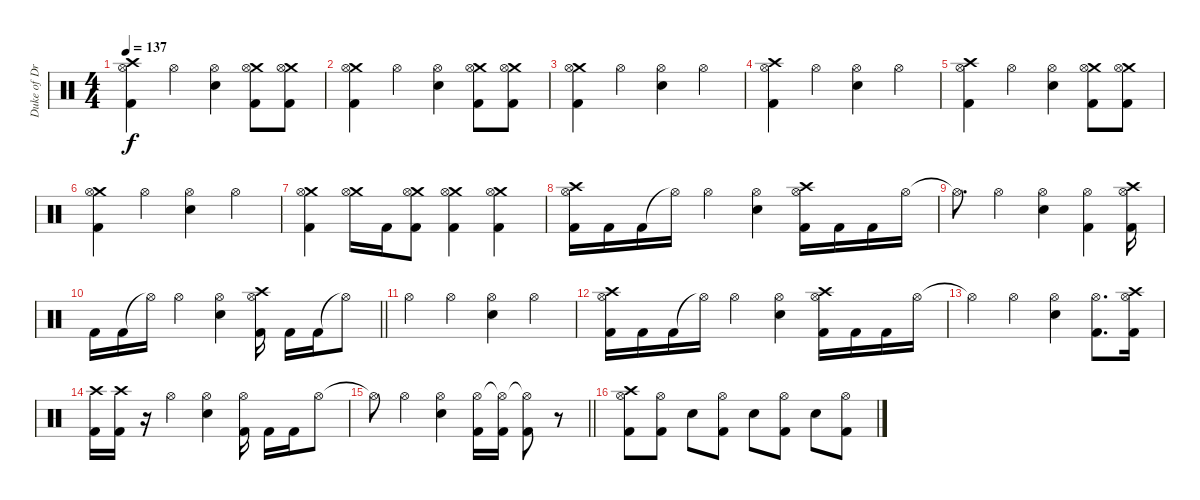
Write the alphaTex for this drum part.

\track ("Duke of Drumington" "Duke of Dr") {instrument percussion}
\staff {score}
\articulation defaults
\ts (4 4)
\tempo 137
\clef neutral
\ks c
("Crash high (hit)" "Hi-Hat (open)" "Kick (hit) 2").4{dy f} "Hi-Hat (open)".4 ("Hi-Hat (open)" "Snare (hit) 2").4 ("Crash medium (hit)" "Hi-Hat (open)" "Kick (hit) 2").8 ("Crash medium (hit)" "Hi-Hat (open)" "Kick (hit) 2").8 |
("Crash medium (hit)" "Hi-Hat (open)" "Kick (hit) 2").4 "Hi-Hat (open)".4 ("Hi-Hat (open)" "Snare (hit) 2").4 ("Crash medium (hit)" "Hi-Hat (open)" "Kick (hit) 2").8 ("Crash medium (hit)" "Hi-Hat (open)" "Kick (hit) 2").8 |
("Crash medium (hit)" "Hi-Hat (open)" "Kick (hit) 2").4 "Hi-Hat (open)".4 ("Hi-Hat (open)" "Snare (hit) 2").4 "Hi-Hat (open)".4 |
("Crash high (hit)" "Hi-Hat (open)" "Kick (hit) 2").4 "Hi-Hat (open)".4 ("Hi-Hat (open)" "Snare (hit) 2").4 "Hi-Hat (open)".4 |
("Crash high (hit)" "Hi-Hat (open)" "Kick (hit) 2").4 "Hi-Hat (open)".4 ("Hi-Hat (open)" "Snare (hit) 2").4 ("Crash medium (hit)" "Hi-Hat (open)" "Kick (hit) 2").8 ("Crash medium (hit)" "Hi-Hat (open)" "Kick (hit) 2").8 |
("Crash medium (hit)" "Hi-Hat (open)" "Kick (hit) 2").4 "Hi-Hat (open)".4 ("Hi-Hat (open)" "Snare (hit) 2").4 "Hi-Hat (open)".4 |
("Crash medium (hit)" "Hi-Hat (open)" "Kick (hit) 2").4 ("Crash medium (hit)" "Hi-Hat (open)").16 "Kick (hit) 2".16 ("Crash medium (hit)" "Hi-Hat (open)" "Kick (hit) 2").8 ("Crash medium (hit)" "Hi-Hat (open)" "Kick (hit) 2").4 ("Crash medium (hit)" "Hi-Hat (open)" "Kick (hit) 2").4 |
("Crash high (hit)" "Hi-Hat (open)" "Kick (hit) 2").16 "Kick (hit) 2".16 "Kick (hit) 2".16 "Hi-Hat (open)"{t}.16 "Hi-Hat (open)".4 ("Hi-Hat (open)" "Snare (hit) 2").4 ("Crash high (hit)" "Hi-Hat (open)" "Kick (hit) 2").16 "Kick (hit) 2".16 "Kick (hit) 2".16 "Hi-Hat (open)".16 |
"Hi-Hat (open)"{t}.8{d} "Hi-Hat (open)".4 ("Hi-Hat (open)" "Snare (hit) 2").4 ("Hi-Hat (open)" "Kick (hit) 2").4 ("Crash high (hit)" "Hi-Hat (open)" "Kick (hit) 2").16 |
\barLineRight lightlight "Kick (hit) 2".16 "Kick (hit) 2".16 "Hi-Hat (open)"{t}.16 "Hi-Hat (open)".4
("Hi-Hat (open)" "Snare (hit) 2").4 ("Crash high (hit)" "Hi-Hat (open)" "Kick (hit) 2").16 "Kick (hit) 2".16 "Kick (hit) 2".16 "Hi-Hat (open)"{t}.8 |
"Hi-Hat (open)".4 "Hi-Hat (open)".4 ("Hi-Hat (open)" "Snare (hit) 2").4 "Hi-Hat (open)".4 |
("Crash high (hit)" "Hi-Hat (open)" "Kick (hit) 2").16 "Kick (hit) 2".16 "Kick (hit) 2".16 "Hi-Hat (open)"{t}.16 "Hi-Hat (open)".4 ("Hi-Hat (open)" "Snare (hit) 2").4 ("Crash high (hit)" "Hi-Hat (open)" "Kick (hit) 2").16 "Kick (hit) 2".16 "Kick (hit) 2".16 "Hi-Hat (open)".16 |
"Hi-Hat (open)"{t}.4 "Hi-Hat (open)".4 ("Hi-Hat (open)" "Snare (hit) 2").4 ("Hi-Hat (open)" "Kick (hit) 2").8{d} ("Crash high (hit)" "Hi-Hat (open)" "Kick (hit) 2").16 |
("Crash high (hit)" "Kick (hit) 2").16 ("Crash high (hit)" "Kick (hit) 2").16 r.16 "Hi-Hat (open)".4 ("Hi-Hat (open)" "Snare (hit) 2").4 ("Hi-Hat (open)" "Kick (hit) 2").16 "Kick (hit) 2".16 "Kick (hit) 2".16 "Hi-Hat (open)".8 |
\barLineRight lightlight "Hi-Hat (open)"{t}.8 "Hi-Hat (open)".4
("Hi-Hat (open)" "Snare (hit) 2").4 ("Hi-Hat (open)" "Kick (hit) 2").16 ("Hi-Hat (open)"{t} "Kick (hit) 2").16 ("Hi-Hat (open)"{t} "Kick (hit) 2").8 r.8 |
("Hi-Hat (open)" "Crash high (hit)" "Kick (hit) 2").8 ("Hi-Hat (open)" "Kick (hit) 2").8 "Snare (hit) 2".8 ("Hi-Hat (open)" "Kick (hit) 2").8 "Snare (hit) 2".8 ("Hi-Hat (open)" "Kick (hit) 2").8 "Snare (hit) 2".8 ("Hi-Hat (open)" "Kick (hit) 2").8
